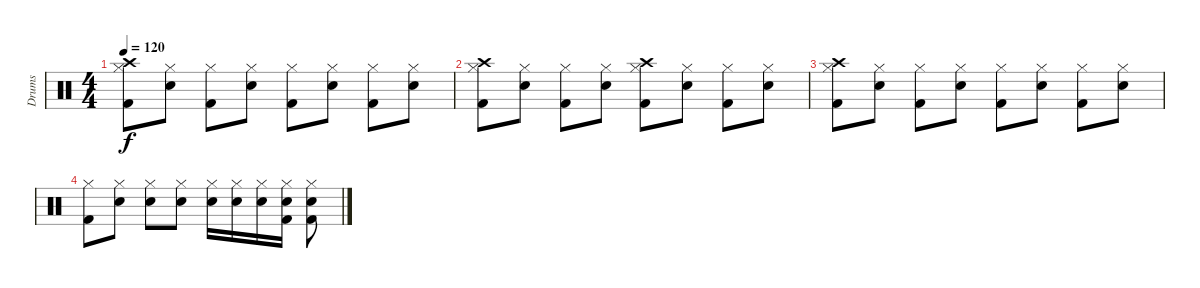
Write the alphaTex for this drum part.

\track ("Drums" "Drums") {instrument percussion}
\staff
\articulation defaults
\ts (4 4)
\tempo 120
\clef neutral
\ks c
("Hi-Hat (closed)" "Kick (hit) 2" "Crash high (hit)").8{dy f} ("Hi-Hat (closed)" "Electric Snare (hit)").8 ("Hi-Hat (closed)" "Kick (hit) 2").8 ("Hi-Hat (closed)" "Electric Snare (hit)").8 ("Hi-Hat (closed)" "Kick (hit) 2").8 ("Hi-Hat (closed)" "Electric Snare (hit)").8 ("Hi-Hat (closed)" "Kick (hit) 2").8 ("Hi-Hat (closed)" "Electric Snare (hit)").8 |
("Hi-Hat (closed)" "Kick (hit) 2" "Crash high (hit)").8 ("Hi-Hat (closed)" "Electric Snare (hit)").8 ("Hi-Hat (closed)" "Kick (hit) 2").8 ("Hi-Hat (closed)" "Electric Snare (hit)").8 ("Hi-Hat (closed)" "Kick (hit) 2" "Crash high (hit)").8 ("Hi-Hat (closed)" "Electric Snare (hit)").8 ("Hi-Hat (closed)" "Kick (hit) 2").8 ("Hi-Hat (closed)" "Electric Snare (hit)").8 |
("Hi-Hat (closed)" "Kick (hit) 2" "Crash high (hit)").8 ("Hi-Hat (closed)" "Electric Snare (hit)").8 ("Hi-Hat (closed)" "Kick (hit) 2").8 ("Hi-Hat (closed)" "Electric Snare (hit)").8 ("Hi-Hat (closed)" "Kick (hit) 2").8 ("Hi-Hat (closed)" "Electric Snare (hit)").8 ("Hi-Hat (closed)" "Kick (hit) 2").8 ("Hi-Hat (closed)" "Electric Snare (hit)").8 |
("Hi-Hat (closed)" "Kick (hit) 2").8 ("Hi-Hat (closed)" "Electric Snare (hit)").8 ("Hi-Hat (closed)" "Electric Snare (hit)").8 ("Hi-Hat (closed)" "Electric Snare (hit)").8 ("Hi-Hat (closed)" "Electric Snare (hit)").16 ("Hi-Hat (closed)" "Electric Snare (hit)").16 ("Hi-Hat (closed)" "Electric Snare (hit)").16 ("Hi-Hat (closed)" "Kick (hit) 2" "Electric Snare (hit)").16 ("Hi-Hat (closed)" "Kick (hit) 2" "Electric Snare (hit)").8
